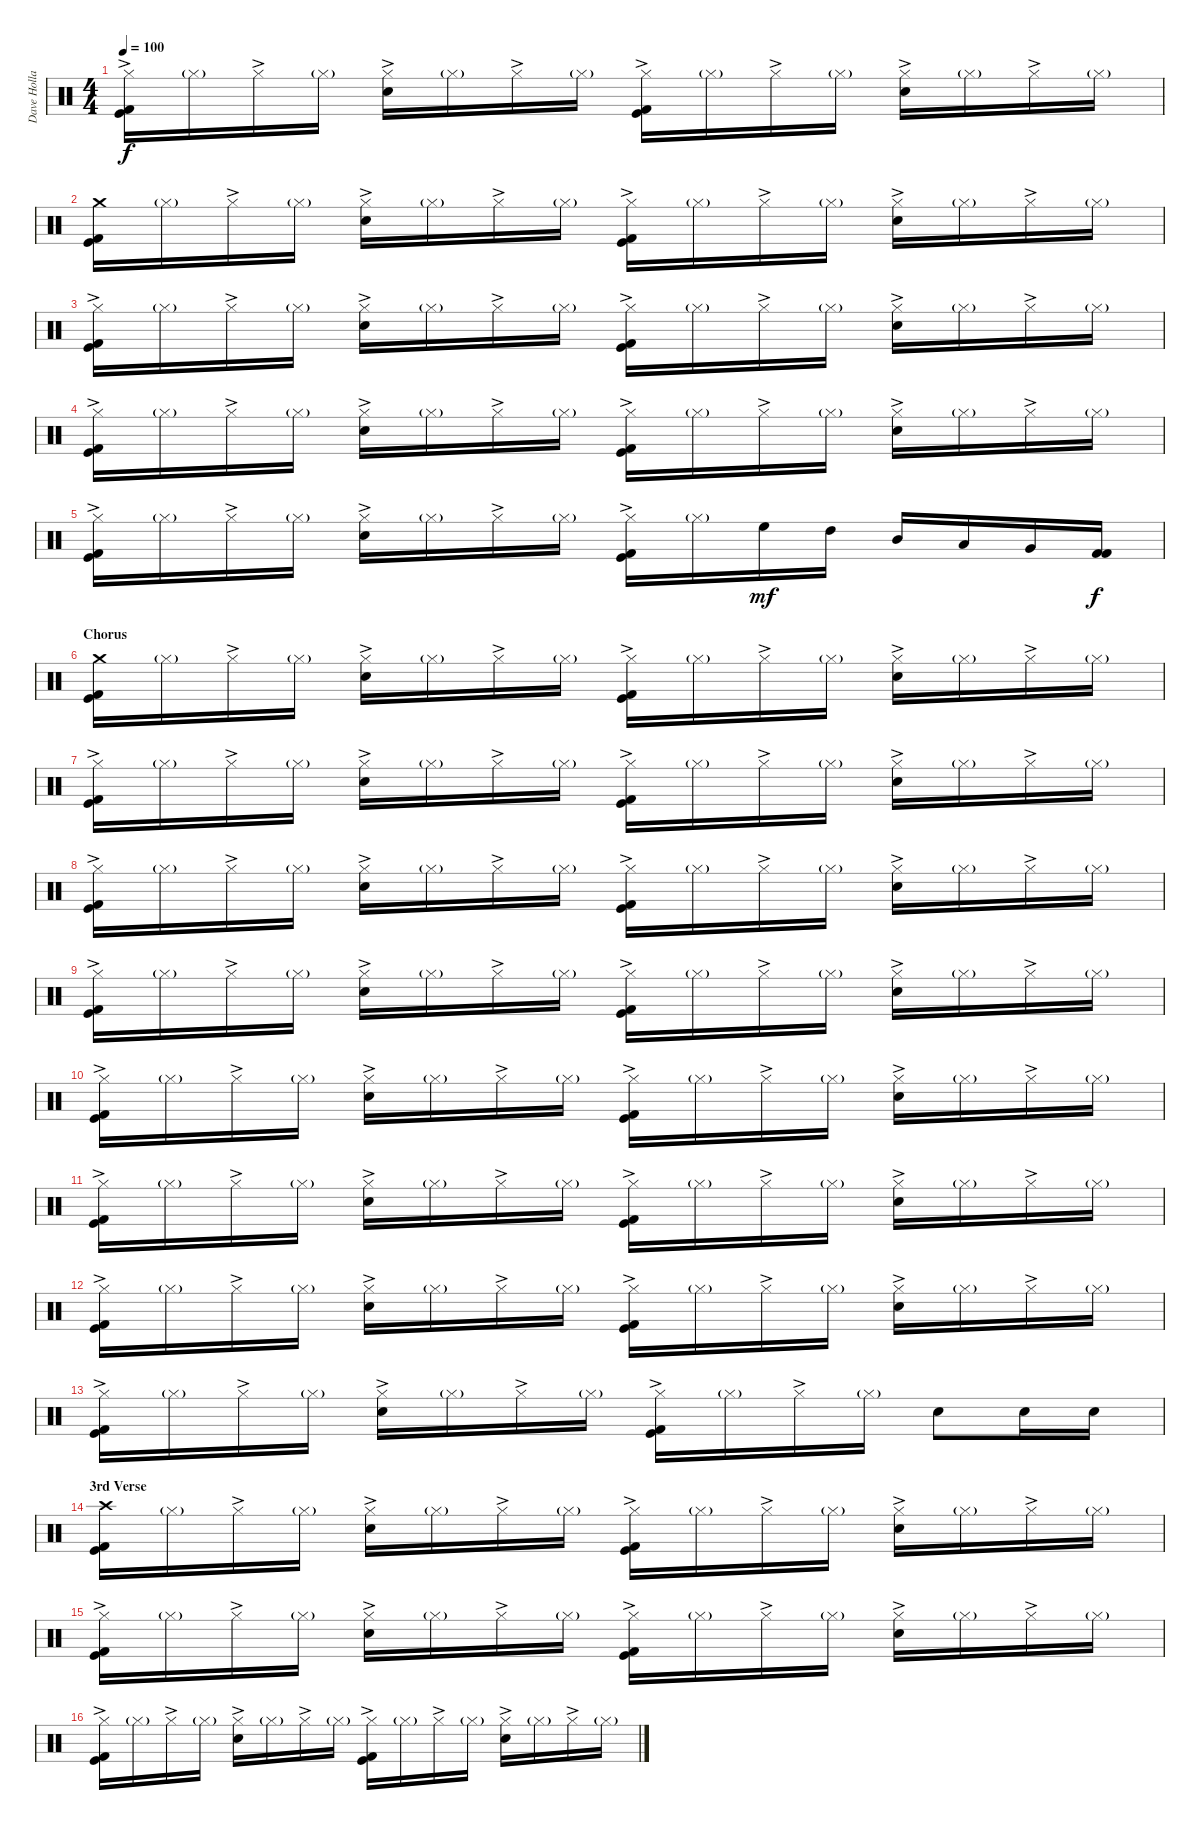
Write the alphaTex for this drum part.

\track ("Dave Holland" "Dave Holla") {instrument percussion}
\staff {score}
\articulation defaults
\ts (4 4)
\tempo 100
\clef neutral
\ks c
("Hi-Hat (closed)"{ac} "Kick (hit)" "Kick (hit) 2").16{dy f} "Hi-Hat (closed)"{g}.16 "Hi-Hat (closed)"{ac}.16 "Hi-Hat (closed)"{g}.16 ("Hi-Hat (closed)"{ac} "Electric Snare (hit)").16 "Hi-Hat (closed)"{g}.16 "Hi-Hat (closed)"{ac}.16 "Hi-Hat (closed)"{g}.16 ("Hi-Hat (closed)"{ac} "Kick (hit)" "Kick (hit) 2").16 "Hi-Hat (closed)"{g}.16 "Hi-Hat (closed)"{ac}.16 "Hi-Hat (closed)"{g}.16 ("Hi-Hat (closed)"{ac} "Electric Snare (hit)").16 "Hi-Hat (closed)"{g}.16 "Hi-Hat (closed)"{ac}.16 "Hi-Hat (closed)"{g}.16 |
("Crash medium (hit)" "Kick (hit)" "Kick (hit) 2").16 "Hi-Hat (closed)"{g}.16 "Hi-Hat (closed)"{ac}.16 "Hi-Hat (closed)"{g}.16 ("Hi-Hat (closed)"{ac} "Electric Snare (hit)").16 "Hi-Hat (closed)"{g}.16 "Hi-Hat (closed)"{ac}.16 "Hi-Hat (closed)"{g}.16 ("Hi-Hat (closed)"{ac} "Kick (hit)" "Kick (hit) 2").16 "Hi-Hat (closed)"{g}.16 "Hi-Hat (closed)"{ac}.16 "Hi-Hat (closed)"{g}.16 ("Hi-Hat (closed)"{ac} "Electric Snare (hit)").16 "Hi-Hat (closed)"{g}.16 "Hi-Hat (closed)"{ac}.16 "Hi-Hat (closed)"{g}.16 |
("Hi-Hat (closed)"{ac} "Kick (hit)" "Kick (hit) 2").16 "Hi-Hat (closed)"{g}.16 "Hi-Hat (closed)"{ac}.16 "Hi-Hat (closed)"{g}.16 ("Hi-Hat (closed)"{ac} "Electric Snare (hit)").16 "Hi-Hat (closed)"{g}.16 "Hi-Hat (closed)"{ac}.16 "Hi-Hat (closed)"{g}.16 ("Hi-Hat (closed)"{ac} "Kick (hit)" "Kick (hit) 2").16 "Hi-Hat (closed)"{g}.16 "Hi-Hat (closed)"{ac}.16 "Hi-Hat (closed)"{g}.16 ("Hi-Hat (closed)"{ac} "Electric Snare (hit)").16 "Hi-Hat (closed)"{g}.16 "Hi-Hat (closed)"{ac}.16 "Hi-Hat (closed)"{g}.16 |
("Hi-Hat (closed)"{ac} "Kick (hit)" "Kick (hit) 2").16 "Hi-Hat (closed)"{g}.16 "Hi-Hat (closed)"{ac}.16 "Hi-Hat (closed)"{g}.16 ("Hi-Hat (closed)"{ac} "Electric Snare (hit)").16 "Hi-Hat (closed)"{g}.16 "Hi-Hat (closed)"{ac}.16 "Hi-Hat (closed)"{g}.16 ("Hi-Hat (closed)"{ac} "Kick (hit)" "Kick (hit) 2").16 "Hi-Hat (closed)"{g}.16 "Hi-Hat (closed)"{ac}.16 "Hi-Hat (closed)"{g}.16 ("Hi-Hat (closed)"{ac} "Electric Snare (hit)").16 "Hi-Hat (closed)"{g}.16 "Hi-Hat (closed)"{ac}.16 "Hi-Hat (closed)"{g}.16 |
("Hi-Hat (closed)"{ac} "Kick (hit)" "Kick (hit) 2").16 "Hi-Hat (closed)"{g}.16 "Hi-Hat (closed)"{ac}.16 "Hi-Hat (closed)"{g}.16 ("Hi-Hat (closed)"{ac} "Electric Snare (hit)").16 "Hi-Hat (closed)"{g}.16 "Hi-Hat (closed)"{ac}.16 "Hi-Hat (closed)"{g}.16 ("Hi-Hat (closed)"{ac} "Kick (hit)" "Kick (hit) 2").16 "Hi-Hat (closed)"{g}.16 "High Floor Tom (hit)".16{dy mf} "High Tom (hit)".16 "Mid Tom (hit)".16 "Low Tom (hit)".16 "Very Low Tom (hit)".16 ("Kick (hit) 2" "Kick (hit) 2").16{dy f} |
\section ("" "Chorus")
("Crash medium (hit)" "Kick (hit)" "Kick (hit) 2").16 "Hi-Hat (closed)"{g}.16 "Hi-Hat (closed)"{ac}.16 "Hi-Hat (closed)"{g}.16 ("Hi-Hat (closed)"{ac} "Electric Snare (hit)").16 "Hi-Hat (closed)"{g}.16 "Hi-Hat (closed)"{ac}.16 "Hi-Hat (closed)"{g}.16 ("Hi-Hat (closed)"{ac} "Kick (hit)" "Kick (hit) 2").16 "Hi-Hat (closed)"{g}.16 "Hi-Hat (closed)"{ac}.16 "Hi-Hat (closed)"{g}.16 ("Hi-Hat (closed)"{ac} "Electric Snare (hit)").16 "Hi-Hat (closed)"{g}.16 "Hi-Hat (closed)"{ac}.16 "Hi-Hat (closed)"{g}.16 |
("Hi-Hat (closed)"{ac} "Kick (hit)" "Kick (hit) 2").16 "Hi-Hat (closed)"{g}.16 "Hi-Hat (closed)"{ac}.16 "Hi-Hat (closed)"{g}.16 ("Hi-Hat (closed)"{ac} "Electric Snare (hit)").16 "Hi-Hat (closed)"{g}.16 "Hi-Hat (closed)"{ac}.16 "Hi-Hat (closed)"{g}.16 ("Hi-Hat (closed)"{ac} "Kick (hit)" "Kick (hit) 2").16 "Hi-Hat (closed)"{g}.16 "Hi-Hat (closed)"{ac}.16 "Hi-Hat (closed)"{g}.16 ("Hi-Hat (closed)"{ac} "Electric Snare (hit)").16 "Hi-Hat (closed)"{g}.16 "Hi-Hat (closed)"{ac}.16 "Hi-Hat (closed)"{g}.16 |
("Hi-Hat (closed)"{ac} "Kick (hit)" "Kick (hit) 2").16 "Hi-Hat (closed)"{g}.16 "Hi-Hat (closed)"{ac}.16 "Hi-Hat (closed)"{g}.16 ("Hi-Hat (closed)"{ac} "Electric Snare (hit)").16 "Hi-Hat (closed)"{g}.16 "Hi-Hat (closed)"{ac}.16 "Hi-Hat (closed)"{g}.16 ("Hi-Hat (closed)"{ac} "Kick (hit)" "Kick (hit) 2").16 "Hi-Hat (closed)"{g}.16 "Hi-Hat (closed)"{ac}.16 "Hi-Hat (closed)"{g}.16 ("Hi-Hat (closed)"{ac} "Electric Snare (hit)").16 "Hi-Hat (closed)"{g}.16 "Hi-Hat (closed)"{ac}.16 "Hi-Hat (closed)"{g}.16 |
("Hi-Hat (closed)"{ac} "Kick (hit)" "Kick (hit) 2").16 "Hi-Hat (closed)"{g}.16 "Hi-Hat (closed)"{ac}.16 "Hi-Hat (closed)"{g}.16 ("Hi-Hat (closed)"{ac} "Electric Snare (hit)").16 "Hi-Hat (closed)"{g}.16 "Hi-Hat (closed)"{ac}.16 "Hi-Hat (closed)"{g}.16 ("Hi-Hat (closed)"{ac} "Kick (hit)" "Kick (hit) 2").16 "Hi-Hat (closed)"{g}.16 "Hi-Hat (closed)"{ac}.16 "Hi-Hat (closed)"{g}.16 ("Hi-Hat (closed)"{ac} "Electric Snare (hit)").16 "Hi-Hat (closed)"{g}.16 "Hi-Hat (closed)"{ac}.16 "Hi-Hat (closed)"{g}.16 |
("Hi-Hat (closed)"{ac} "Kick (hit)" "Kick (hit) 2").16 "Hi-Hat (closed)"{g}.16 "Hi-Hat (closed)"{ac}.16 "Hi-Hat (closed)"{g}.16 ("Hi-Hat (closed)"{ac} "Electric Snare (hit)").16 "Hi-Hat (closed)"{g}.16 "Hi-Hat (closed)"{ac}.16 "Hi-Hat (closed)"{g}.16 ("Hi-Hat (closed)"{ac} "Kick (hit)" "Kick (hit) 2").16 "Hi-Hat (closed)"{g}.16 "Hi-Hat (closed)"{ac}.16 "Hi-Hat (closed)"{g}.16 ("Hi-Hat (closed)"{ac} "Electric Snare (hit)").16 "Hi-Hat (closed)"{g}.16 "Hi-Hat (closed)"{ac}.16 "Hi-Hat (closed)"{g}.16 |
("Hi-Hat (closed)"{ac} "Kick (hit)" "Kick (hit) 2").16 "Hi-Hat (closed)"{g}.16 "Hi-Hat (closed)"{ac}.16 "Hi-Hat (closed)"{g}.16 ("Hi-Hat (closed)"{ac} "Electric Snare (hit)").16 "Hi-Hat (closed)"{g}.16 "Hi-Hat (closed)"{ac}.16 "Hi-Hat (closed)"{g}.16 ("Hi-Hat (closed)"{ac} "Kick (hit)" "Kick (hit) 2").16 "Hi-Hat (closed)"{g}.16 "Hi-Hat (closed)"{ac}.16 "Hi-Hat (closed)"{g}.16 ("Hi-Hat (closed)"{ac} "Electric Snare (hit)").16 "Hi-Hat (closed)"{g}.16 "Hi-Hat (closed)"{ac}.16 "Hi-Hat (closed)"{g}.16 |
("Hi-Hat (closed)"{ac} "Kick (hit)" "Kick (hit) 2").16 "Hi-Hat (closed)"{g}.16 "Hi-Hat (closed)"{ac}.16 "Hi-Hat (closed)"{g}.16 ("Hi-Hat (closed)"{ac} "Electric Snare (hit)").16 "Hi-Hat (closed)"{g}.16 "Hi-Hat (closed)"{ac}.16 "Hi-Hat (closed)"{g}.16 ("Hi-Hat (closed)"{ac} "Kick (hit)" "Kick (hit) 2").16 "Hi-Hat (closed)"{g}.16 "Hi-Hat (closed)"{ac}.16 "Hi-Hat (closed)"{g}.16 ("Hi-Hat (closed)"{ac} "Electric Snare (hit)").16 "Hi-Hat (closed)"{g}.16 "Hi-Hat (closed)"{ac}.16 "Hi-Hat (closed)"{g}.16 |
("Hi-Hat (closed)"{ac} "Kick (hit)" "Kick (hit) 2").16 "Hi-Hat (closed)"{g}.16 "Hi-Hat (closed)"{ac}.16 "Hi-Hat (closed)"{g}.16 ("Hi-Hat (closed)"{ac} "Electric Snare (hit)").16 "Hi-Hat (closed)"{g}.16 "Hi-Hat (closed)"{ac}.16 "Hi-Hat (closed)"{g}.16 ("Hi-Hat (closed)"{ac} "Kick (hit)" "Kick (hit) 2").16 "Hi-Hat (closed)"{g}.16 "Hi-Hat (closed)"{ac}.16 "Hi-Hat (closed)"{g}.16 "Electric Snare (hit)".8 "Electric Snare (hit)".16 "Electric Snare (hit)".16 |
\section ("" "3rd Verse")
("Crash high (hit)" "Kick (hit)" "Kick (hit) 2").16 "Hi-Hat (closed)"{g}.16 "Hi-Hat (closed)"{ac}.16 "Hi-Hat (closed)"{g}.16 ("Hi-Hat (closed)"{ac} "Electric Snare (hit)").16 "Hi-Hat (closed)"{g}.16 "Hi-Hat (closed)"{ac}.16 "Hi-Hat (closed)"{g}.16 ("Hi-Hat (closed)"{ac} "Kick (hit)" "Kick (hit) 2").16 "Hi-Hat (closed)"{g}.16 "Hi-Hat (closed)"{ac}.16 "Hi-Hat (closed)"{g}.16 ("Hi-Hat (closed)"{ac} "Electric Snare (hit)").16 "Hi-Hat (closed)"{g}.16 "Hi-Hat (closed)"{ac}.16 "Hi-Hat (closed)"{g}.16 |
("Hi-Hat (closed)"{ac} "Kick (hit)" "Kick (hit) 2").16 "Hi-Hat (closed)"{g}.16 "Hi-Hat (closed)"{ac}.16 "Hi-Hat (closed)"{g}.16 ("Hi-Hat (closed)"{ac} "Electric Snare (hit)").16 "Hi-Hat (closed)"{g}.16 "Hi-Hat (closed)"{ac}.16 "Hi-Hat (closed)"{g}.16 ("Hi-Hat (closed)"{ac} "Kick (hit)" "Kick (hit) 2").16 "Hi-Hat (closed)"{g}.16 "Hi-Hat (closed)"{ac}.16 "Hi-Hat (closed)"{g}.16 ("Hi-Hat (closed)"{ac} "Electric Snare (hit)").16 "Hi-Hat (closed)"{g}.16 "Hi-Hat (closed)"{ac}.16 "Hi-Hat (closed)"{g}.16 |
("Hi-Hat (closed)"{ac} "Kick (hit)" "Kick (hit) 2").16 "Hi-Hat (closed)"{g}.16 "Hi-Hat (closed)"{ac}.16 "Hi-Hat (closed)"{g}.16 ("Hi-Hat (closed)"{ac} "Electric Snare (hit)").16 "Hi-Hat (closed)"{g}.16 "Hi-Hat (closed)"{ac}.16 "Hi-Hat (closed)"{g}.16 ("Hi-Hat (closed)"{ac} "Kick (hit)" "Kick (hit) 2").16 "Hi-Hat (closed)"{g}.16 "Hi-Hat (closed)"{ac}.16 "Hi-Hat (closed)"{g}.16 ("Hi-Hat (closed)"{ac} "Electric Snare (hit)").16 "Hi-Hat (closed)"{g}.16 "Hi-Hat (closed)"{ac}.16 "Hi-Hat (closed)"{g}.16
